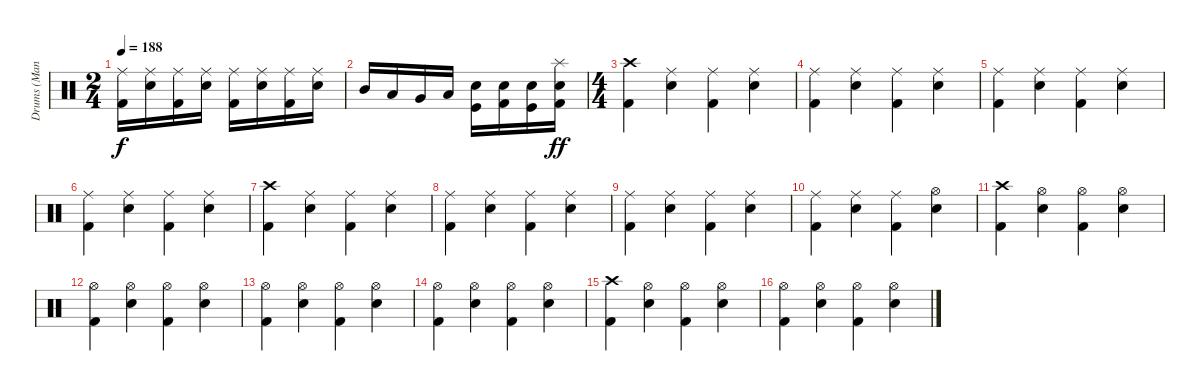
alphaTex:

\track ("Drums (Manheim)" "Drums (Man") {instrument percussion}
\staff {score}
\articulation defaults
\ts (2 4)
\tempo 188
\clef neutral
\ks c
("Ride (middle)" "Kick (hit) 2").16{dy f} ("Ride (middle)" "Electric Snare (hit)").16 ("Ride (middle)" "Kick (hit) 2").16 ("Ride (middle)" "Electric Snare (hit)").16 ("Ride (middle)" "Kick (hit) 2").16 ("Ride (middle)" "Electric Snare (hit)").16 ("Ride (middle)" "Kick (hit) 2").16 ("Ride (middle)" "Electric Snare (hit)").16 |
"Mid Tom (hit)".16 "Low Tom (hit)".16 "Very Low Tom (hit)".16 "Low Floor Tom (hit)".16 ("Electric Snare (hit)" "Kick (hit)").16 ("Electric Snare (hit)" "Kick (hit) 2").16 ("Electric Snare (hit)" "Kick (hit)").16 ("Splash (hit)" "Electric Snare (hit)" "Kick (hit) 2").16{dy ff} |
\ts (4 4)
("Crash high (hit)" "Kick (hit) 2").4 ("Ride (middle)" "Electric Snare (hit)").4 ("Ride (middle)" "Kick (hit) 2").4 ("Ride (middle)" "Electric Snare (hit)").4 |
("Ride (middle)" "Kick (hit) 2").4 ("Ride (middle)" "Electric Snare (hit)").4 ("Ride (middle)" "Kick (hit) 2").4 ("Ride (middle)" "Electric Snare (hit)").4 |
("Ride (middle)" "Kick (hit) 2").4 ("Ride (middle)" "Electric Snare (hit)").4 ("Ride (middle)" "Kick (hit) 2").4 ("Ride (middle)" "Electric Snare (hit)").4 |
("Ride (middle)" "Kick (hit) 2").4 ("Ride (middle)" "Electric Snare (hit)").4 ("Ride (middle)" "Kick (hit) 2").4 ("Ride (middle)" "Electric Snare (hit)").4 |
("Crash high (hit)" "Kick (hit) 2").4 ("Ride (middle)" "Electric Snare (hit)").4 ("Ride (middle)" "Kick (hit) 2").4 ("Ride (middle)" "Electric Snare (hit)").4 |
("Ride (middle)" "Kick (hit) 2").4 ("Ride (middle)" "Electric Snare (hit)").4 ("Ride (middle)" "Kick (hit) 2").4 ("Ride (middle)" "Electric Snare (hit)").4 |
("Ride (middle)" "Kick (hit) 2").4 ("Ride (middle)" "Electric Snare (hit)").4 ("Ride (middle)" "Kick (hit) 2").4 ("Ride (middle)" "Electric Snare (hit)").4 |
("Ride (middle)" "Kick (hit) 2").4 ("Ride (middle)" "Electric Snare (hit)").4 ("Ride (middle)" "Kick (hit) 2").4 ("Hi-Hat (open)" "Electric Snare (hit)").4 |
("Crash high (hit)" "Kick (hit) 2").4 ("Hi-Hat (open)" "Electric Snare (hit)").4 ("Hi-Hat (open)" "Kick (hit) 2").4 ("Hi-Hat (open)" "Electric Snare (hit)").4 |
("Hi-Hat (open)" "Kick (hit) 2").4 ("Hi-Hat (open)" "Electric Snare (hit)").4 ("Hi-Hat (open)" "Kick (hit) 2").4 ("Hi-Hat (open)" "Electric Snare (hit)").4 |
("Hi-Hat (open)" "Kick (hit) 2").4 ("Hi-Hat (open)" "Electric Snare (hit)").4 ("Hi-Hat (open)" "Kick (hit) 2").4 ("Hi-Hat (open)" "Electric Snare (hit)").4 |
("Hi-Hat (open)" "Kick (hit) 2").4 ("Hi-Hat (open)" "Electric Snare (hit)").4 ("Hi-Hat (open)" "Kick (hit) 2").4 ("Hi-Hat (open)" "Electric Snare (hit)").4 |
("Crash high (hit)" "Kick (hit) 2").4 ("Hi-Hat (open)" "Electric Snare (hit)").4 ("Hi-Hat (open)" "Kick (hit) 2").4 ("Hi-Hat (open)" "Electric Snare (hit)").4 |
("Hi-Hat (open)" "Kick (hit) 2").4 ("Hi-Hat (open)" "Electric Snare (hit)").4 ("Hi-Hat (open)" "Kick (hit) 2").4 ("Hi-Hat (open)" "Electric Snare (hit)").4
